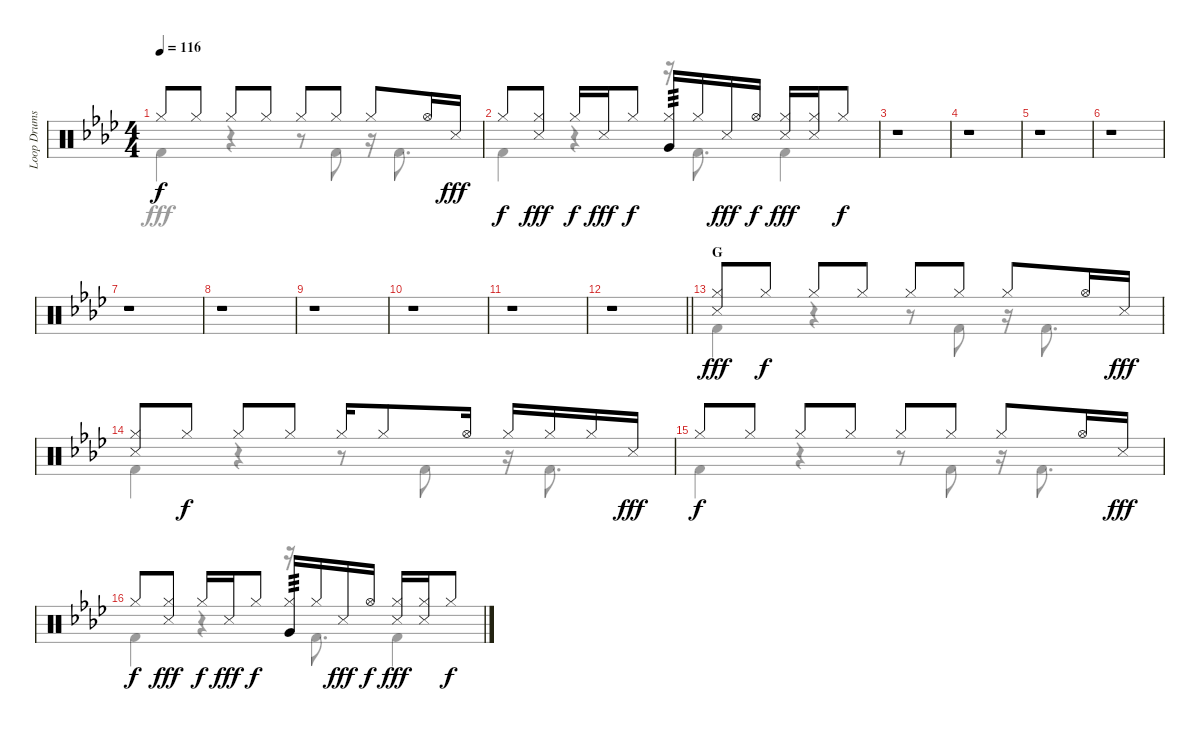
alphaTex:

\track ("Loop Drums I" "Loop Drums") {instrument percussion}
\staff {score}
\articulation defaults
\voice
\ts (4 4)
\tempo 116
\clef neutral
\ks ab "Hi-Hat (closed)".8{dy f} "Hi-Hat (closed)".8 "Hi-Hat (closed)".8 "Hi-Hat (closed)".8 "Hi-Hat (closed)".8 "Hi-Hat (closed)".8 "Hi-Hat (closed)".8 "Hi-Hat (open)".16 "Snare (side stick) 3".16{dy fff}
|
"Hi-Hat (closed)".8{dy f} ("Hi-Hat (closed)" "Snare (side stick) 3").8{dy fff} "Hi-Hat (closed)".16{dy f} "Snare (side stick) 3".16{dy fff} "Hi-Hat (closed)".8{dy f} ("Hi-Hat (closed)" "Very Low Tom (hit)").16{tp 3} "Hi-Hat (closed)".16 "Snare (side stick) 3".16{dy fff} "Hi-Hat (open)".16{dy f} ("Hi-Hat (closed)" "Snare (side stick) 3").16{dy fff} ("Hi-Hat (closed)" "Snare (side stick) 3").16 "Hi-Hat (closed)".8{dy f} |
r.1 |
r.1 |
r.1 |
r.1 |
r.1 |
r.1 |
r.1 |
r.1 |
r.1 |
\barLineRight lightlight
r.1 |
\section ("" "G")
("Hi-Hat (closed)" "Snare (side stick) 3").8{dy fff} "Hi-Hat (closed)".8{dy f} "Hi-Hat (closed)".8 "Hi-Hat (closed)".8 "Hi-Hat (closed)".8 "Hi-Hat (closed)".8 "Hi-Hat (closed)".8 "Hi-Hat (open)".16 "Snare (side stick) 3".16{dy fff} |
("Hi-Hat (closed)" "Snare (side stick) 3").8 "Hi-Hat (closed)".8{dy f} "Hi-Hat (closed)".8 "Hi-Hat (closed)".8 "Hi-Hat (closed)".16 "Hi-Hat (closed)".8 "Hi-Hat (open)".16 "Hi-Hat (closed)".16 "Hi-Hat (closed)".16 "Hi-Hat (closed)".16 "Snare (side stick) 3".16{dy fff} |
"Hi-Hat (closed)".8{dy f} "Hi-Hat (closed)".8 "Hi-Hat (closed)".8 "Hi-Hat (closed)".8 "Hi-Hat (closed)".8 "Hi-Hat (closed)".8 "Hi-Hat (closed)".8 "Hi-Hat (open)".16 "Snare (side stick) 3".16{dy fff} |
"Hi-Hat (closed)".8{dy f} ("Hi-Hat (closed)" "Snare (side stick) 3").8{dy fff} "Hi-Hat (closed)".16{dy f} "Snare (side stick) 3".16{dy fff} "Hi-Hat (closed)".8{dy f} ("Hi-Hat (closed)" "Very Low Tom (hit)").16{tp 3} "Hi-Hat (closed)".16 "Snare (side stick) 3".16{dy fff} "Hi-Hat (open)".16{dy f} ("Hi-Hat (closed)" "Snare (side stick) 3").16{dy fff} ("Hi-Hat (closed)" "Snare (side stick) 3").16 "Hi-Hat (closed)".8{dy f}
\voice
\clef neutral
\ottava regular
\simile none
\ks ab "Kick (hit) 2".4{dy fff}
r.4 r.8 "Kick (hit) 2".8 r.16 "Kick (hit) 2".8{d} |
"Kick (hit) 2".4 r.4 r.16 "Kick (hit) 2".8{d} "Kick (hit) 2".4 |
r.1 |
r.1 |
r.1 |
r.1 |
r.1 |
r.1 |
r.1 |
r.1 |
r.1 |
\barLineRight lightlight
r.1 |
"Kick (hit) 2".4 r.4 r.8 "Kick (hit) 2".8 r.16 "Kick (hit) 2".8{d} |
"Kick (hit) 2".4 r.4 r.8 "Kick (hit) 2".8 r.16 "Kick (hit) 2".8{d} |
"Kick (hit) 2".4 r.4 r.8 "Kick (hit) 2".8 r.16 "Kick (hit) 2".8{d} |
"Kick (hit) 2".4 r.4 r.16 "Kick (hit) 2".8{d} "Kick (hit) 2".4
